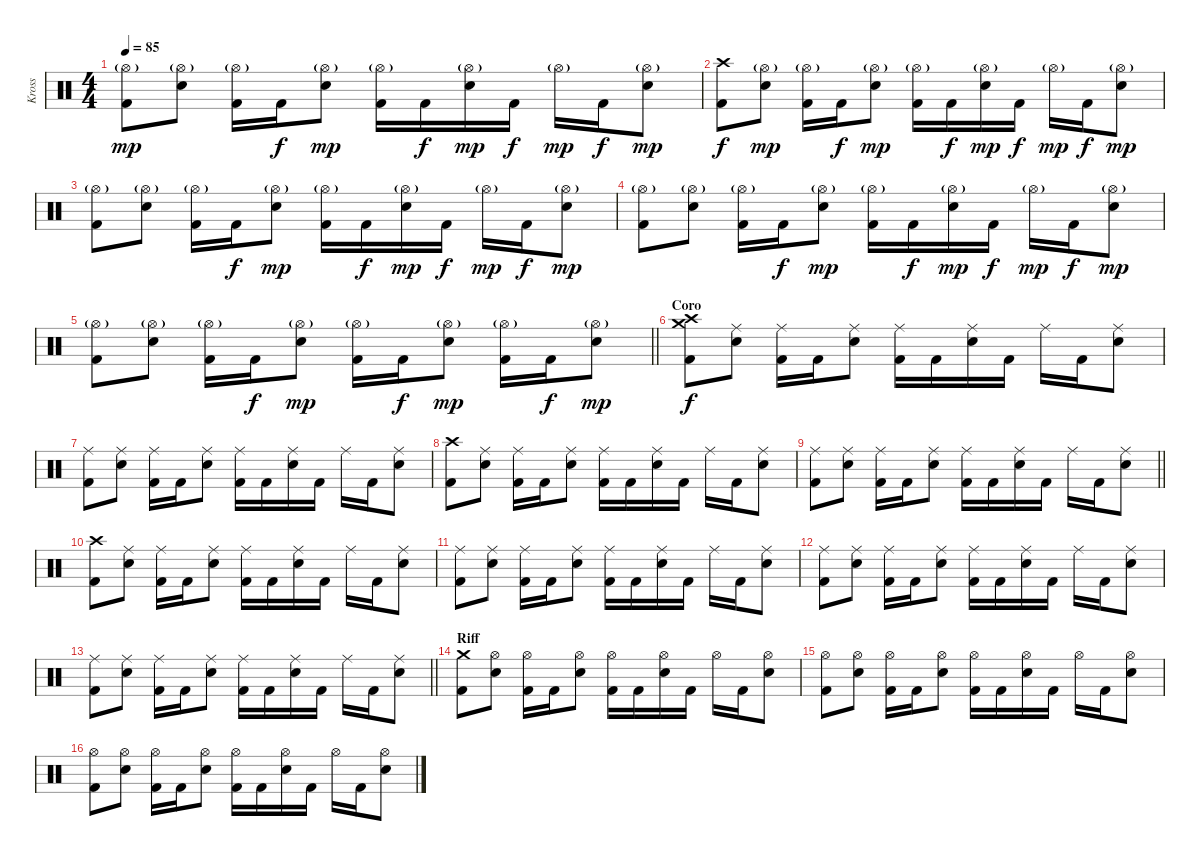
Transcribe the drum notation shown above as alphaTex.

\track ("Kross" "Kross") {instrument percussion}
\staff
\articulation defaults
\ts (4 4)
\tempo 85
\clef neutral
\ks c
("Hi-Hat (open)"{g} "Kick (hit) 2").8{dy mp} ("Hi-Hat (open)"{g} "Electric Snare (hit)").8 ("Hi-Hat (open)"{g} "Kick (hit) 2").16 "Kick (hit) 2".16{dy f} ("Hi-Hat (open)"{g} "Electric Snare (hit)").8{dy mp} ("Hi-Hat (open)"{g} "Kick (hit) 2").16 "Kick (hit) 2".16{dy f} ("Hi-Hat (open)"{g} "Electric Snare (hit)").16{dy mp} "Kick (hit) 2".16{dy f} "Hi-Hat (open)"{g}.16{dy mp} "Kick (hit) 2".16{dy f} ("Hi-Hat (open)"{g} "Electric Snare (hit)").8{dy mp} |
("Crash high (hit)" "Kick (hit) 2").8{dy f} ("Hi-Hat (open)"{g} "Electric Snare (hit)").8{dy mp} ("Hi-Hat (open)"{g} "Kick (hit) 2").16 "Kick (hit) 2".16{dy f} ("Hi-Hat (open)"{g} "Electric Snare (hit)").8{dy mp} ("Hi-Hat (open)"{g} "Kick (hit) 2").16 "Kick (hit) 2".16{dy f} ("Hi-Hat (open)"{g} "Electric Snare (hit)").16{dy mp} "Kick (hit) 2".16{dy f} "Hi-Hat (open)"{g}.16{dy mp} "Kick (hit) 2".16{dy f} ("Hi-Hat (open)"{g} "Electric Snare (hit)").8{dy mp} |
("Hi-Hat (open)"{g} "Kick (hit) 2").8 ("Hi-Hat (open)"{g} "Electric Snare (hit)").8 ("Hi-Hat (open)"{g} "Kick (hit) 2").16 "Kick (hit) 2".16{dy f} ("Hi-Hat (open)"{g} "Electric Snare (hit)").8{dy mp} ("Hi-Hat (open)"{g} "Kick (hit) 2").16 "Kick (hit) 2".16{dy f} ("Hi-Hat (open)"{g} "Electric Snare (hit)").16{dy mp} "Kick (hit) 2".16{dy f} "Hi-Hat (open)"{g}.16{dy mp} "Kick (hit) 2".16{dy f} ("Hi-Hat (open)"{g} "Electric Snare (hit)").8{dy mp} |
("Hi-Hat (open)"{g} "Kick (hit) 2").8 ("Hi-Hat (open)"{g} "Electric Snare (hit)").8 ("Hi-Hat (open)"{g} "Kick (hit) 2").16 "Kick (hit) 2".16{dy f} ("Hi-Hat (open)"{g} "Electric Snare (hit)").8{dy mp} ("Hi-Hat (open)"{g} "Kick (hit) 2").16 "Kick (hit) 2".16{dy f} ("Hi-Hat (open)"{g} "Electric Snare (hit)").16{dy mp} "Kick (hit) 2".16{dy f} "Hi-Hat (open)"{g}.16{dy mp} "Kick (hit) 2".16{dy f} ("Hi-Hat (open)"{g} "Electric Snare (hit)").8{dy mp} |
\barLineRight lightlight
("Hi-Hat (open)"{g} "Kick (hit) 2").8 ("Hi-Hat (open)"{g} "Electric Snare (hit)").8 ("Hi-Hat (open)"{g} "Kick (hit) 2").16 "Kick (hit) 2".16{dy f} ("Hi-Hat (open)"{g} "Electric Snare (hit)").8{dy mp} ("Hi-Hat (open)"{g} "Kick (hit) 2").16 "Kick (hit) 2".16{dy f} ("Hi-Hat (open)"{g} "Electric Snare (hit)").8{dy mp} ("Hi-Hat (open)"{g} "Kick (hit) 2").16 "Kick (hit) 2".16{dy f} ("Hi-Hat (open)"{g} "Electric Snare (hit)").8{dy mp} |
\section ("" "Coro")
("Crash medium (hit)" "Crash high (hit)" "Kick (hit) 2").8{dy f} ("Ride (middle)" "Electric Snare (hit)").8 ("Ride (middle)" "Kick (hit) 2").16 "Kick (hit) 2".16 ("Ride (middle)" "Electric Snare (hit)").8 ("Ride (middle)" "Kick (hit) 2").16 "Kick (hit) 2".16 ("Ride (middle)" "Electric Snare (hit)").16 "Kick (hit) 2".16 "Ride (middle)".16 "Kick (hit) 2".16 ("Ride (middle)" "Electric Snare (hit)").8 |
("Ride (middle)" "Kick (hit) 2").8 ("Ride (middle)" "Electric Snare (hit)").8 ("Ride (middle)" "Kick (hit) 2").16 "Kick (hit) 2".16 ("Ride (middle)" "Electric Snare (hit)").8 ("Ride (middle)" "Kick (hit) 2").16 "Kick (hit) 2".16 ("Ride (middle)" "Electric Snare (hit)").16 "Kick (hit) 2".16 "Ride (middle)".16 "Kick (hit) 2".16 ("Ride (middle)" "Electric Snare (hit)").8 |
("Crash high (hit)" "Kick (hit) 2").8 ("Ride (middle)" "Electric Snare (hit)").8 ("Ride (middle)" "Kick (hit) 2").16 "Kick (hit) 2".16 ("Ride (middle)" "Electric Snare (hit)").8 ("Ride (middle)" "Kick (hit) 2").16 "Kick (hit) 2".16 ("Ride (middle)" "Electric Snare (hit)").16 "Kick (hit) 2".16 "Ride (middle)".16 "Kick (hit) 2".16 ("Ride (middle)" "Electric Snare (hit)").8 |
\barLineRight lightlight
("Ride (middle)" "Kick (hit) 2").8 ("Ride (middle)" "Electric Snare (hit)").8 ("Ride (middle)" "Kick (hit) 2").16 "Kick (hit) 2".16 ("Ride (middle)" "Electric Snare (hit)").8 ("Ride (middle)" "Kick (hit) 2").16 "Kick (hit) 2".16 ("Ride (middle)" "Electric Snare (hit)").16 "Kick (hit) 2".16 "Ride (middle)".16 "Kick (hit) 2".16 ("Ride (middle)" "Electric Snare (hit)").8 |
("Crash high (hit)" "Kick (hit) 2").8 ("Ride (middle)" "Electric Snare (hit)").8 ("Ride (middle)" "Kick (hit) 2").16 "Kick (hit) 2".16 ("Ride (middle)" "Electric Snare (hit)").8 ("Ride (middle)" "Kick (hit) 2").16 "Kick (hit) 2".16 ("Ride (middle)" "Electric Snare (hit)").16 "Kick (hit) 2".16 "Ride (middle)".16 "Kick (hit) 2".16 ("Ride (middle)" "Electric Snare (hit)").8 |
("Ride (middle)" "Kick (hit) 2").8 ("Ride (middle)" "Electric Snare (hit)").8 ("Ride (middle)" "Kick (hit) 2").16 "Kick (hit) 2".16 ("Ride (middle)" "Electric Snare (hit)").8 ("Ride (middle)" "Kick (hit) 2").16 "Kick (hit) 2".16 ("Ride (middle)" "Electric Snare (hit)").16 "Kick (hit) 2".16 "Ride (middle)".16 "Kick (hit) 2".16 ("Ride (middle)" "Electric Snare (hit)").8 |
("Ride (middle)" "Kick (hit) 2").8 ("Ride (middle)" "Electric Snare (hit)").8 ("Ride (middle)" "Kick (hit) 2").16 "Kick (hit) 2".16 ("Ride (middle)" "Electric Snare (hit)").8 ("Ride (middle)" "Kick (hit) 2").16 "Kick (hit) 2".16 ("Ride (middle)" "Electric Snare (hit)").16 "Kick (hit) 2".16 "Ride (middle)".16 "Kick (hit) 2".16 ("Ride (middle)" "Electric Snare (hit)").8 |
\barLineRight lightlight
("Ride (middle)" "Kick (hit) 2").8 ("Ride (middle)" "Electric Snare (hit)").8 ("Ride (middle)" "Kick (hit) 2").16 "Kick (hit) 2".16 ("Ride (middle)" "Electric Snare (hit)").8 ("Ride (middle)" "Kick (hit) 2").16 "Kick (hit) 2".16 ("Ride (middle)" "Electric Snare (hit)").16 "Kick (hit) 2".16 "Ride (middle)".16 "Kick (hit) 2".16 ("Ride (middle)" "Electric Snare (hit)").8 |
\section ("" "Riff")
("Crash medium (hit)" "Kick (hit) 2").8 ("Hi-Hat (open)" "Electric Snare (hit)").8 ("Hi-Hat (open)" "Kick (hit) 2").16 "Kick (hit) 2".16 ("Hi-Hat (open)" "Electric Snare (hit)").8 ("Hi-Hat (open)" "Kick (hit) 2").16 "Kick (hit) 2".16 ("Hi-Hat (open)" "Electric Snare (hit)").16 "Kick (hit) 2".16 "Hi-Hat (open)".16 "Kick (hit) 2".16 ("Hi-Hat (open)" "Electric Snare (hit)").8 |
("Hi-Hat (open)" "Kick (hit) 2").8 ("Hi-Hat (open)" "Electric Snare (hit)").8 ("Hi-Hat (open)" "Kick (hit) 2").16 "Kick (hit) 2".16 ("Hi-Hat (open)" "Electric Snare (hit)").8 ("Hi-Hat (open)" "Kick (hit) 2").16 "Kick (hit) 2".16 ("Hi-Hat (open)" "Electric Snare (hit)").16 "Kick (hit) 2".16 "Hi-Hat (open)".16 "Kick (hit) 2".16 ("Hi-Hat (open)" "Electric Snare (hit)").8 |
("Hi-Hat (open)" "Kick (hit) 2").8 ("Hi-Hat (open)" "Electric Snare (hit)").8 ("Hi-Hat (open)" "Kick (hit) 2").16 "Kick (hit) 2".16 ("Hi-Hat (open)" "Electric Snare (hit)").8 ("Hi-Hat (open)" "Kick (hit) 2").16 "Kick (hit) 2".16 ("Hi-Hat (open)" "Electric Snare (hit)").16 "Kick (hit) 2".16 "Hi-Hat (open)".16 "Kick (hit) 2".16 ("Hi-Hat (open)" "Electric Snare (hit)").8
